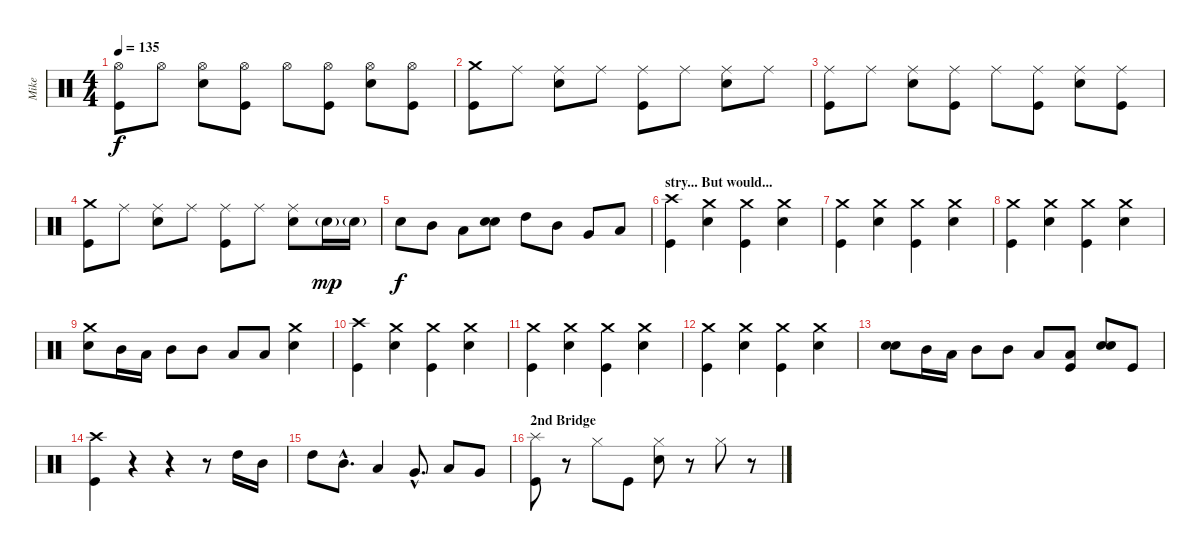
\track ("Mike" "Mike") {instrument percussion}
\staff {score}
\articulation defaults
\ts (4 4)
\tempo 135
\clef neutral
\ks c
("Hi-Hat (open)" "Kick (hit)").8{dy f} "Hi-Hat (open)".8 ("Hi-Hat (open)" "Electric Snare (hit)").8 ("Hi-Hat (open)" "Kick (hit)").8 "Hi-Hat (open)".8 ("Hi-Hat (open)" "Kick (hit)").8 ("Hi-Hat (open)" "Electric Snare (hit)").8 ("Hi-Hat (open)" "Kick (hit)").8 |
("Crash medium (hit)" "Kick (hit)").8 "Ride (middle)".8 ("Ride (middle)" "Electric Snare (hit)").8 "Ride (middle)".8 ("Ride (middle)" "Kick (hit)").8 "Ride (middle)".8 ("Ride (middle)" "Electric Snare (hit)").8 "Ride (middle)".8 |
("Ride (middle)" "Kick (hit)").8 "Ride (middle)".8 ("Ride (middle)" "Electric Snare (hit)").8 ("Ride (middle)" "Kick (hit)").8 "Ride (middle)".8 ("Ride (middle)" "Kick (hit)").8 ("Ride (middle)" "Electric Snare (hit)").8 ("Ride (middle)" "Kick (hit)").8 |
("Crash medium (hit)" "Kick (hit)").8 "Ride (middle)".8 ("Ride (middle)" "Electric Snare (hit)").8 "Ride (middle)".8 ("Ride (middle)" "Kick (hit)").8 "Ride (middle)".8 ("Ride (middle)" "Electric Snare (hit)").8 "Electric Snare (hit)"{g}.16{dy mp} "Electric Snare (hit)"{g}.16 |
"Electric Snare (hit)".8{dy f} "Mid Tom (hit)".8 "Low Tom (hit)".8 ("Electric Snare (hit)" "Electric Snare (hit)").8{bu 240} "High Tom (hit)".8 "Mid Tom (hit)".8 "Very Low Tom (hit)".8 "Low Floor Tom (hit)".8 |
\section ("" "stry... But would...")
("Crash high (hit)" "Kick (hit)").4 ("Crash medium (hit)" "Electric Snare (hit)").4 ("Crash medium (hit)" "Kick (hit)").4 ("Crash medium (hit)" "Electric Snare (hit)").4 |
("Crash medium (hit)" "Kick (hit)").4 ("Crash medium (hit)" "Electric Snare (hit)").4 ("Crash medium (hit)" "Kick (hit)").4 ("Crash medium (hit)" "Electric Snare (hit)").4 |
("Crash medium (hit)" "Kick (hit)").4 ("Crash medium (hit)" "Electric Snare (hit)").4 ("Crash medium (hit)" "Kick (hit)").4 ("Crash medium (hit)" "Electric Snare (hit)").4 |
("Crash medium (hit)" "Electric Snare (hit)").8 "Mid Tom (hit)".16 "Low Tom (hit)".16 "Mid Tom (hit)".8 "Mid Tom (hit)".8 "Low Tom (hit)".8 "Low Tom (hit)".8 ("Crash medium (hit)" "Electric Snare (hit)").4 |
("Crash high (hit)" "Kick (hit)").4 ("Crash medium (hit)" "Electric Snare (hit)").4 ("Crash medium (hit)" "Kick (hit)").4 ("Crash medium (hit)" "Electric Snare (hit)").4 |
("Crash medium (hit)" "Kick (hit)").4 ("Crash medium (hit)" "Electric Snare (hit)").4 ("Crash medium (hit)" "Kick (hit)").4 ("Crash medium (hit)" "Electric Snare (hit)").4 |
("Crash medium (hit)" "Kick (hit)").4 ("Crash medium (hit)" "Electric Snare (hit)").4 ("Crash medium (hit)" "Kick (hit)").4 ("Crash medium (hit)" "Electric Snare (hit)").4 |
("Electric Snare (hit)" "Electric Snare (hit)").8{bu 240} "Mid Tom (hit)".16 "Low Tom (hit)".16 "Mid Tom (hit)".8 "Mid Tom (hit)".8 "Low Tom (hit)".8 ("Low Tom (hit)" "Kick (hit)").8 ("Electric Snare (hit)" "Electric Snare (hit)").8{bu 240} "Kick (hit)".8 |
("Crash high (hit)" "Kick (hit)").4 r.4 r.4 r.8 "High Tom (hit)".16 "Mid Tom (hit)".16 |
"High Tom (hit)".8 "Mid Tom (hit)"{hac}.8{d} "Low Tom (hit)".4 "Very Low Tom (hit)"{hac}.8{d} "Low Tom (hit)".8 "Very Low Tom (hit)".8 |
\section ("" "2nd Bridge")
("Splash (hit)" "Kick (hit)").8 r.8 "Hi-Hat (closed)".8 "Kick (hit)".8 ("Hi-Hat (closed)" "Electric Snare (hit)").8 r.8 "Hi-Hat (closed)".8 r.8
